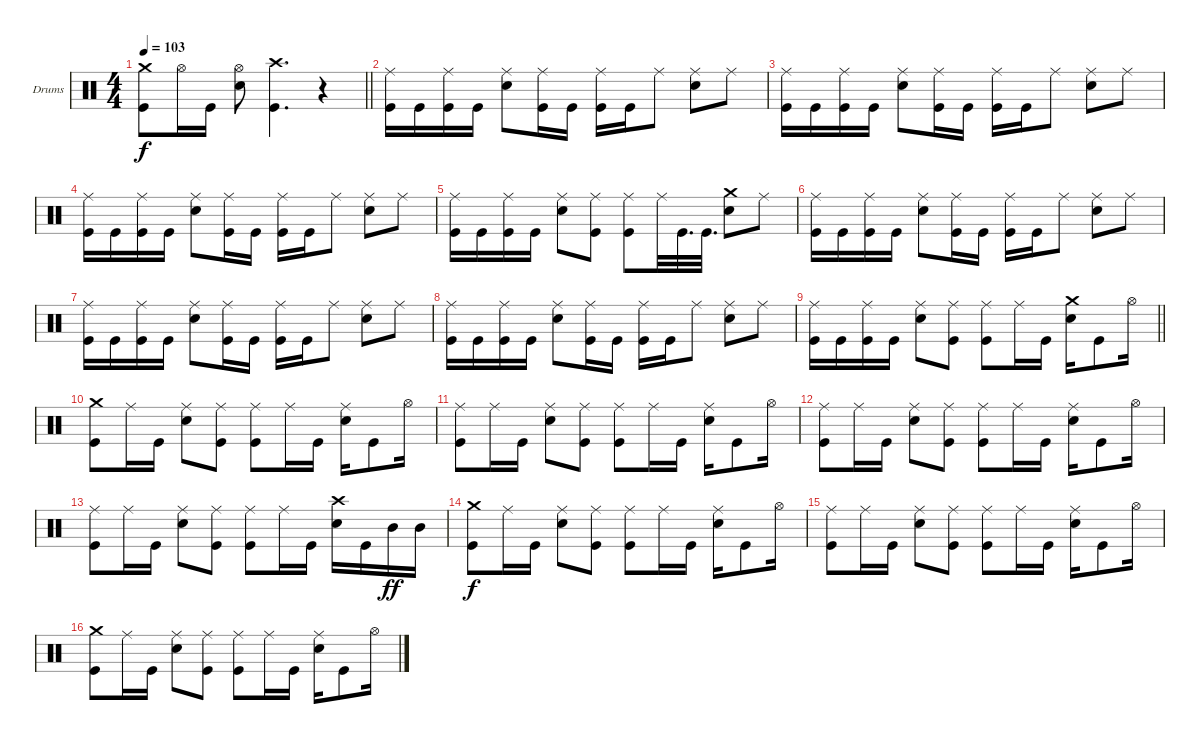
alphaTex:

\bracketExtendMode groupsimilarinstruments
\firstSystemTrackNameOrientation horizontal
\otherSystemsTrackNameOrientation horizontal
\track ("Drums" "Drums") {instrument percussion}
\staff {score}
\articulation defaults
\ts (4 4)
\tempo 103
\clef neutral
\barLineRight lightlight
\ks c
("Kick (hit)" "Crash medium (hit)").8{dy f} "Hi-Hat (open)".16 "Kick (hit)".16 ("Snare (hit) 2" "Hi-Hat (open)").8 ("Kick (hit)" "Crash high (hit)").4{d} r.4 |
("Kick (hit)" "Ride (middle)").16 "Kick (hit)".16 ("Kick (hit)" "Ride (middle)").16 "Kick (hit)".16 ("Snare (hit) 2" "Ride (middle)").8 ("Kick (hit)" "Ride (middle)").16 "Kick (hit)".16 ("Kick (hit)" "Ride (middle)").16 "Kick (hit)".16 "Ride (middle)".8 ("Snare (hit) 2" "Ride (middle)").8 "Ride (middle)".8 |
("Kick (hit)" "Ride (middle)").16 "Kick (hit)".16 ("Kick (hit)" "Ride (middle)").16 "Kick (hit)".16 ("Snare (hit) 2" "Ride (middle)").8 ("Kick (hit)" "Ride (middle)").16 "Kick (hit)".16 ("Kick (hit)" "Ride (middle)").16 "Kick (hit)".16 "Ride (middle)".8 ("Snare (hit) 2" "Ride (middle)").8 "Ride (middle)".8 |
("Kick (hit)" "Ride (middle)").16 "Kick (hit)".16 ("Kick (hit)" "Ride (middle)").16 "Kick (hit)".16 ("Snare (hit) 2" "Ride (middle)").8 ("Kick (hit)" "Ride (middle)").16 "Kick (hit)".16 ("Kick (hit)" "Ride (middle)").16 "Kick (hit)".16 "Ride (middle)".8 ("Snare (hit) 2" "Ride (middle)").8 "Ride (middle)".8 |
("Kick (hit)" "Ride (middle)").16 "Kick (hit)".16 ("Kick (hit)" "Ride (middle)").16 "Kick (hit)".16 ("Snare (hit) 2" "Ride (middle)").8 ("Kick (hit)" "Ride (middle)").8 ("Kick (hit)" "Ride (middle)").8 "Ride (middle)".32 "Kick (hit)".32{d} "Kick (hit)".32{d} ("Snare (hit) 2" "Crash medium (hit)").8 "Ride (middle)".8 |
("Kick (hit)" "Ride (middle)").16 "Kick (hit)".16 ("Kick (hit)" "Ride (middle)").16 "Kick (hit)".16 ("Snare (hit) 2" "Ride (middle)").8 ("Kick (hit)" "Ride (middle)").16 "Kick (hit)".16 ("Kick (hit)" "Ride (middle)").16 "Kick (hit)".16 "Ride (middle)".8 ("Snare (hit) 2" "Ride (middle)").8 "Ride (middle)".8 |
("Kick (hit)" "Ride (middle)").16 "Kick (hit)".16 ("Kick (hit)" "Ride (middle)").16 "Kick (hit)".16 ("Snare (hit) 2" "Ride (middle)").8 ("Kick (hit)" "Ride (middle)").16 "Kick (hit)".16 ("Kick (hit)" "Ride (middle)").16 "Kick (hit)".16 "Ride (middle)".8 ("Snare (hit) 2" "Ride (middle)").8 "Ride (middle)".8 |
("Kick (hit)" "Ride (middle)").16 "Kick (hit)".16 ("Kick (hit)" "Ride (middle)").16 "Kick (hit)".16 ("Snare (hit) 2" "Ride (middle)").8 ("Kick (hit)" "Ride (middle)").16 "Kick (hit)".16 ("Kick (hit)" "Ride (middle)").16 "Kick (hit)".16 "Ride (middle)".8 ("Snare (hit) 2" "Ride (middle)").8 "Ride (middle)".8 |
\barLineRight lightlight
("Kick (hit)" "Ride (middle)").16 "Kick (hit)".16 ("Kick (hit)" "Ride (middle)").16 "Kick (hit)".16 ("Snare (hit) 2" "Ride (middle)").8 ("Kick (hit)" "Ride (middle)").8 ("Kick (hit)" "Ride (middle)").8 "Ride (middle)".16 "Kick (hit)".16 ("Snare (hit) 2" "Crash medium (hit)").16 "Kick (hit)".8 "Hi-Hat (open)".16 |
("Crash medium (hit)" "Kick (hit)").8 "Ride (middle)".16 "Kick (hit)".16 ("Snare (hit) 2" "Ride (middle)").8 ("Kick (hit)" "Ride (middle)").8 ("Kick (hit)" "Ride (middle)").8 "Ride (middle)".16 "Kick (hit)".16 ("Snare (hit) 2" "Ride (middle)").16 "Kick (hit)".8 "Hi-Hat (open)".16 |
("Kick (hit)" "Ride (middle)").8 "Ride (middle)".16 "Kick (hit)".16 ("Snare (hit) 2" "Ride (middle)").8 ("Kick (hit)" "Ride (middle)").8 ("Kick (hit)" "Ride (middle)").8 "Ride (middle)".16 "Kick (hit)".16 ("Snare (hit) 2" "Ride (middle)").16 "Kick (hit)".8 "Hi-Hat (open)".16 |
("Kick (hit)" "Ride (middle)").8 "Ride (middle)".16 "Kick (hit)".16 ("Snare (hit) 2" "Ride (middle)").8 ("Kick (hit)" "Ride (middle)").8 ("Kick (hit)" "Ride (middle)").8 "Ride (middle)".16 "Kick (hit)".16 ("Snare (hit) 2" "Ride (middle)").16 "Kick (hit)".8 "Hi-Hat (open)".16 |
("Kick (hit)" "Ride (middle)").8 "Ride (middle)".16 "Kick (hit)".16 ("Snare (hit) 2" "Ride (middle)").8 ("Kick (hit)" "Ride (middle)").8 ("Kick (hit)" "Ride (middle)").8 "Ride (middle)".16 "Kick (hit)".16 ("Snare (hit) 2" "Crash high (hit)").16 "Kick (hit)".16 "Mid Tom (hit)".16{dy ff} "Mid Tom (hit)".16 |
("Crash medium (hit)" "Kick (hit)").8{dy f} "Ride (middle)".16 "Kick (hit)".16 ("Snare (hit) 2" "Ride (middle)").8 ("Kick (hit)" "Ride (middle)").8 ("Kick (hit)" "Ride (middle)").8 "Ride (middle)".16 "Kick (hit)".16 ("Snare (hit) 2" "Ride (middle)").16 "Kick (hit)".8 "Hi-Hat (open)".16 |
("Kick (hit)" "Ride (middle)").8 "Ride (middle)".16 "Kick (hit)".16 ("Snare (hit) 2" "Ride (middle)").8 ("Kick (hit)" "Ride (middle)").8 ("Kick (hit)" "Ride (middle)").8 "Ride (middle)".16 "Kick (hit)".16 ("Snare (hit) 2" "Ride (middle)").16 "Kick (hit)".8 "Hi-Hat (open)".16 |
("Crash medium (hit)" "Kick (hit)").8 "Ride (middle)".16 "Kick (hit)".16 ("Snare (hit) 2" "Ride (middle)").8 ("Kick (hit)" "Ride (middle)").8 ("Kick (hit)" "Ride (middle)").8 "Ride (middle)".16 "Kick (hit)".16 ("Snare (hit) 2" "Ride (middle)").16 "Kick (hit)".8 "Hi-Hat (open)".16
